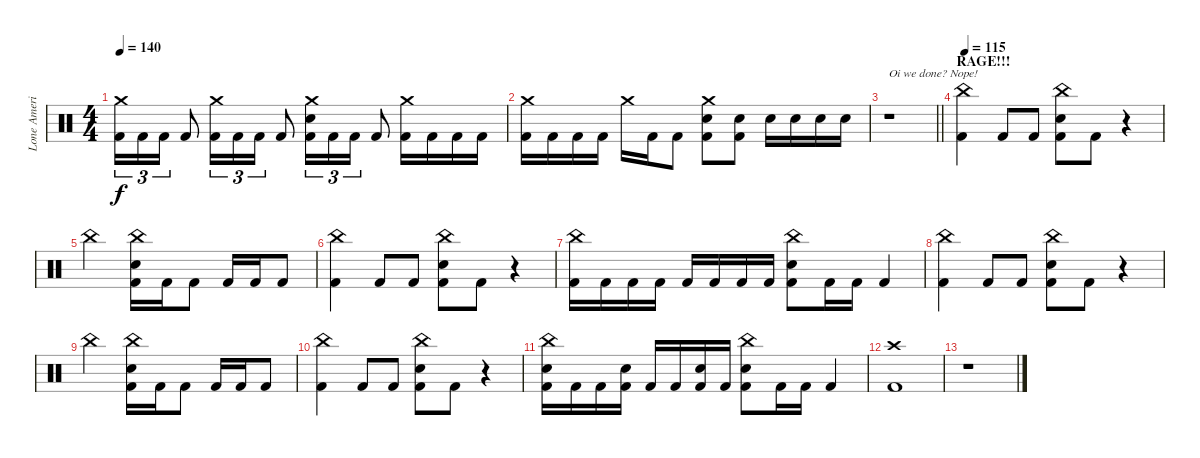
\track ("Lone America" "Lone Ameri") {instrument percussion}
\staff {score}
\articulation defaults
\ts (4 4)
\tempo 140
\clef neutral
\ks c
("Crash medium (hit)" "Kick (hit) 2").16{tu (3 2) dy f} "Kick (hit) 2".16{tu (3 2)} "Kick (hit) 2".16{tu (3 2)} "Kick (hit) 2".8 ("Crash medium (hit)" "Kick (hit) 2").16{tu (3 2)} "Kick (hit) 2".16{tu (3 2)} "Kick (hit) 2".16{tu (3 2)} "Kick (hit) 2".8 ("Crash medium (hit)" "Electric Snare (hit)" "Kick (hit) 2").16{tu (3 2)} "Kick (hit) 2".16{tu (3 2)} "Kick (hit) 2".16{tu (3 2)} "Kick (hit) 2".8 ("Crash medium (hit)" "Kick (hit) 2").16 "Kick (hit) 2".16 "Kick (hit) 2".16 "Kick (hit) 2".16 |
("Crash medium (hit)" "Kick (hit) 2").16 "Kick (hit) 2".16 "Kick (hit) 2".16 "Kick (hit) 2".16 "Crash medium (hit)".16 "Kick (hit) 2".16 "Kick (hit) 2".8 ("Crash medium (hit)" "Electric Snare (hit)" "Kick (hit) 2").8 ("Electric Snare (hit)" "Kick (hit) 2").8 "Electric Snare (hit)".16 "Electric Snare (hit)".16 "Electric Snare (hit)".16 "Electric Snare (hit)".16 |
\barLineRight lightlight
r.1{txt "Oi we done? Nope!"} |
\section ("" "RAGE!!!")
\tempo 115
("China (hit)" "Kick (hit) 2").4 "Kick (hit) 2".8 "Kick (hit) 2".8 ("China (hit)" "Electric Snare (hit)" "Kick (hit) 2").8 "Kick (hit) 2".8 r.4 |
"China (hit)".2 ("China (hit)" "Electric Snare (hit)" "Kick (hit) 2").16 "Kick (hit) 2".16 "Kick (hit) 2".8 "Kick (hit) 2".16 "Kick (hit) 2".16 "Kick (hit) 2".8 |
("China (hit)" "Kick (hit) 2").4 "Kick (hit) 2".8 "Kick (hit) 2".8 ("China (hit)" "Electric Snare (hit)" "Kick (hit) 2").8 "Kick (hit) 2".8 r.4 |
("China (hit)" "Kick (hit) 2").16 "Kick (hit) 2".16 "Kick (hit) 2".16 "Kick (hit) 2".16 "Kick (hit) 2".16 "Kick (hit) 2".16 "Kick (hit) 2".16 "Kick (hit) 2".16 ("China (hit)" "Electric Snare (hit)" "Kick (hit) 2").8 "Kick (hit) 2".16 "Kick (hit) 2".16 "Kick (hit) 2".4 |
("China (hit)" "Kick (hit) 2").4 "Kick (hit) 2".8 "Kick (hit) 2".8 ("China (hit)" "Electric Snare (hit)" "Kick (hit) 2").8 "Kick (hit) 2".8 r.4 |
"China (hit)".2 ("China (hit)" "Electric Snare (hit)" "Kick (hit) 2").16 "Kick (hit) 2".16 "Kick (hit) 2".8 "Kick (hit) 2".16 "Kick (hit) 2".16 "Kick (hit) 2".8 |
("China (hit)" "Kick (hit) 2").4 "Kick (hit) 2".8 "Kick (hit) 2".8 ("China (hit)" "Electric Snare (hit)" "Kick (hit) 2").8 "Kick (hit) 2".8 r.4 |
("China (hit)" "Electric Snare (hit)" "Kick (hit) 2").16 "Kick (hit) 2".16 "Kick (hit) 2".16 ("Electric Snare (hit)" "Kick (hit) 2").16 "Kick (hit) 2".16 "Kick (hit) 2".16 ("Electric Snare (hit)" "Kick (hit) 2").16 "Kick (hit) 2".16 ("China (hit)" "Electric Snare (hit)" "Kick (hit) 2").8 "Kick (hit) 2".16 "Kick (hit) 2".16 "Kick (hit) 2".4 |
("Crash high (hit)" "Kick (hit) 2").1 |
r.1
